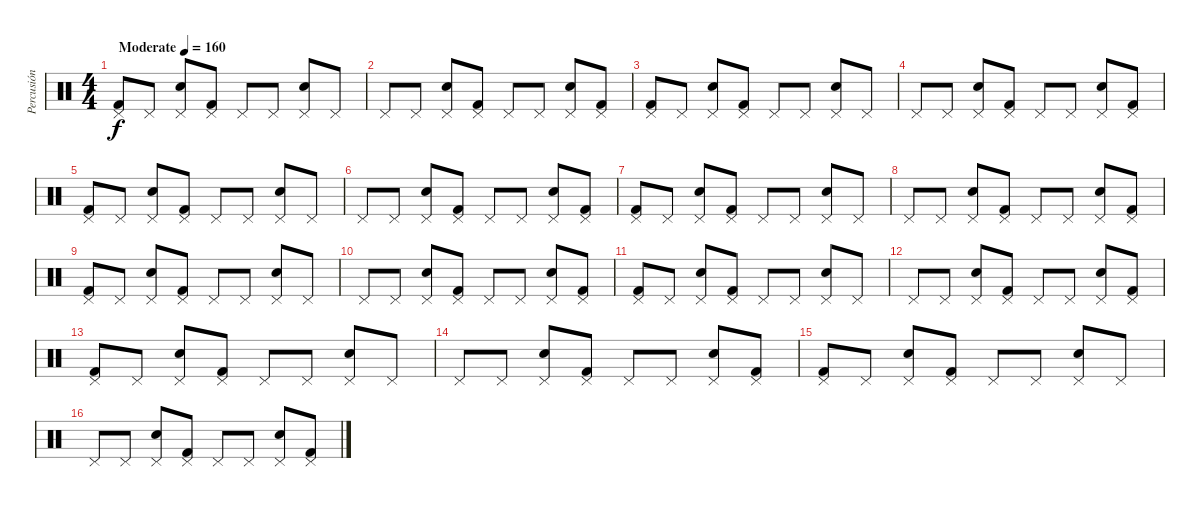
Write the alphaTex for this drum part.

\track ("Percusión" "Percusión") {instrument percussion}
\staff {score}
\articulation defaults
\ts (4 4)
\tempo (160 "Moderate")
\clef neutral
\ks c
("Pedal Hi-Hat (hit)" "Kick (hit) 2").8{dy f} "Pedal Hi-Hat (hit)".8 ("Pedal Hi-Hat (hit)" "Electric Snare (hit)").8 ("Pedal Hi-Hat (hit)" "Kick (hit) 2").8 "Pedal Hi-Hat (hit)".8 "Pedal Hi-Hat (hit)".8 ("Pedal Hi-Hat (hit)" "Electric Snare (hit)").8 "Pedal Hi-Hat (hit)".8 |
"Pedal Hi-Hat (hit)".8 "Pedal Hi-Hat (hit)".8 ("Pedal Hi-Hat (hit)" "Electric Snare (hit)").8 ("Pedal Hi-Hat (hit)" "Kick (hit) 2").8 "Pedal Hi-Hat (hit)".8 "Pedal Hi-Hat (hit)".8 ("Pedal Hi-Hat (hit)" "Electric Snare (hit)").8 ("Pedal Hi-Hat (hit)" "Kick (hit) 2").8 |
("Pedal Hi-Hat (hit)" "Kick (hit) 2").8 "Pedal Hi-Hat (hit)".8 ("Pedal Hi-Hat (hit)" "Electric Snare (hit)").8 ("Pedal Hi-Hat (hit)" "Kick (hit) 2").8 "Pedal Hi-Hat (hit)".8 "Pedal Hi-Hat (hit)".8 ("Pedal Hi-Hat (hit)" "Electric Snare (hit)").8 "Pedal Hi-Hat (hit)".8 |
"Pedal Hi-Hat (hit)".8 "Pedal Hi-Hat (hit)".8 ("Pedal Hi-Hat (hit)" "Electric Snare (hit)").8 ("Pedal Hi-Hat (hit)" "Kick (hit) 2").8 "Pedal Hi-Hat (hit)".8 "Pedal Hi-Hat (hit)".8 ("Pedal Hi-Hat (hit)" "Electric Snare (hit)").8 ("Pedal Hi-Hat (hit)" "Kick (hit) 2").8 |
("Pedal Hi-Hat (hit)" "Kick (hit) 2").8 "Pedal Hi-Hat (hit)".8 ("Pedal Hi-Hat (hit)" "Electric Snare (hit)").8 ("Pedal Hi-Hat (hit)" "Kick (hit) 2").8 "Pedal Hi-Hat (hit)".8 "Pedal Hi-Hat (hit)".8 ("Pedal Hi-Hat (hit)" "Electric Snare (hit)").8 "Pedal Hi-Hat (hit)".8 |
"Pedal Hi-Hat (hit)".8 "Pedal Hi-Hat (hit)".8 ("Pedal Hi-Hat (hit)" "Electric Snare (hit)").8 ("Pedal Hi-Hat (hit)" "Kick (hit) 2").8 "Pedal Hi-Hat (hit)".8 "Pedal Hi-Hat (hit)".8 ("Pedal Hi-Hat (hit)" "Electric Snare (hit)").8 ("Pedal Hi-Hat (hit)" "Kick (hit) 2").8 |
("Pedal Hi-Hat (hit)" "Kick (hit) 2").8 "Pedal Hi-Hat (hit)".8 ("Pedal Hi-Hat (hit)" "Electric Snare (hit)").8 ("Pedal Hi-Hat (hit)" "Kick (hit) 2").8 "Pedal Hi-Hat (hit)".8 "Pedal Hi-Hat (hit)".8 ("Pedal Hi-Hat (hit)" "Electric Snare (hit)").8 "Pedal Hi-Hat (hit)".8 |
"Pedal Hi-Hat (hit)".8 "Pedal Hi-Hat (hit)".8 ("Pedal Hi-Hat (hit)" "Electric Snare (hit)").8 ("Pedal Hi-Hat (hit)" "Kick (hit) 2").8 "Pedal Hi-Hat (hit)".8 "Pedal Hi-Hat (hit)".8 ("Pedal Hi-Hat (hit)" "Electric Snare (hit)").8 ("Pedal Hi-Hat (hit)" "Kick (hit) 2").8 |
("Pedal Hi-Hat (hit)" "Kick (hit) 2").8 "Pedal Hi-Hat (hit)".8 ("Pedal Hi-Hat (hit)" "Electric Snare (hit)").8 ("Pedal Hi-Hat (hit)" "Kick (hit) 2").8 "Pedal Hi-Hat (hit)".8 "Pedal Hi-Hat (hit)".8 ("Pedal Hi-Hat (hit)" "Electric Snare (hit)").8 "Pedal Hi-Hat (hit)".8 |
"Pedal Hi-Hat (hit)".8 "Pedal Hi-Hat (hit)".8 ("Pedal Hi-Hat (hit)" "Electric Snare (hit)").8 ("Pedal Hi-Hat (hit)" "Kick (hit) 2").8 "Pedal Hi-Hat (hit)".8 "Pedal Hi-Hat (hit)".8 ("Pedal Hi-Hat (hit)" "Electric Snare (hit)").8 ("Pedal Hi-Hat (hit)" "Kick (hit) 2").8 |
("Pedal Hi-Hat (hit)" "Kick (hit) 2").8 "Pedal Hi-Hat (hit)".8 ("Pedal Hi-Hat (hit)" "Electric Snare (hit)").8 ("Pedal Hi-Hat (hit)" "Kick (hit) 2").8 "Pedal Hi-Hat (hit)".8 "Pedal Hi-Hat (hit)".8 ("Pedal Hi-Hat (hit)" "Electric Snare (hit)").8 "Pedal Hi-Hat (hit)".8 |
"Pedal Hi-Hat (hit)".8 "Pedal Hi-Hat (hit)".8 ("Pedal Hi-Hat (hit)" "Electric Snare (hit)").8 ("Pedal Hi-Hat (hit)" "Kick (hit) 2").8 "Pedal Hi-Hat (hit)".8 "Pedal Hi-Hat (hit)".8 ("Pedal Hi-Hat (hit)" "Electric Snare (hit)").8 ("Pedal Hi-Hat (hit)" "Kick (hit) 2").8 |
("Pedal Hi-Hat (hit)" "Kick (hit) 2").8 "Pedal Hi-Hat (hit)".8 ("Pedal Hi-Hat (hit)" "Electric Snare (hit)").8 ("Pedal Hi-Hat (hit)" "Kick (hit) 2").8 "Pedal Hi-Hat (hit)".8 "Pedal Hi-Hat (hit)".8 ("Pedal Hi-Hat (hit)" "Electric Snare (hit)").8 "Pedal Hi-Hat (hit)".8 |
"Pedal Hi-Hat (hit)".8 "Pedal Hi-Hat (hit)".8 ("Pedal Hi-Hat (hit)" "Electric Snare (hit)").8 ("Pedal Hi-Hat (hit)" "Kick (hit) 2").8 "Pedal Hi-Hat (hit)".8 "Pedal Hi-Hat (hit)".8 ("Pedal Hi-Hat (hit)" "Electric Snare (hit)").8 ("Pedal Hi-Hat (hit)" "Kick (hit) 2").8 |
("Pedal Hi-Hat (hit)" "Kick (hit) 2").8 "Pedal Hi-Hat (hit)".8 ("Pedal Hi-Hat (hit)" "Electric Snare (hit)").8 ("Pedal Hi-Hat (hit)" "Kick (hit) 2").8 "Pedal Hi-Hat (hit)".8 "Pedal Hi-Hat (hit)".8 ("Pedal Hi-Hat (hit)" "Electric Snare (hit)").8 "Pedal Hi-Hat (hit)".8 |
"Pedal Hi-Hat (hit)".8 "Pedal Hi-Hat (hit)".8 ("Pedal Hi-Hat (hit)" "Electric Snare (hit)").8 ("Pedal Hi-Hat (hit)" "Kick (hit) 2").8 "Pedal Hi-Hat (hit)".8 "Pedal Hi-Hat (hit)".8 ("Pedal Hi-Hat (hit)" "Electric Snare (hit)").8 ("Pedal Hi-Hat (hit)" "Kick (hit) 2").8
